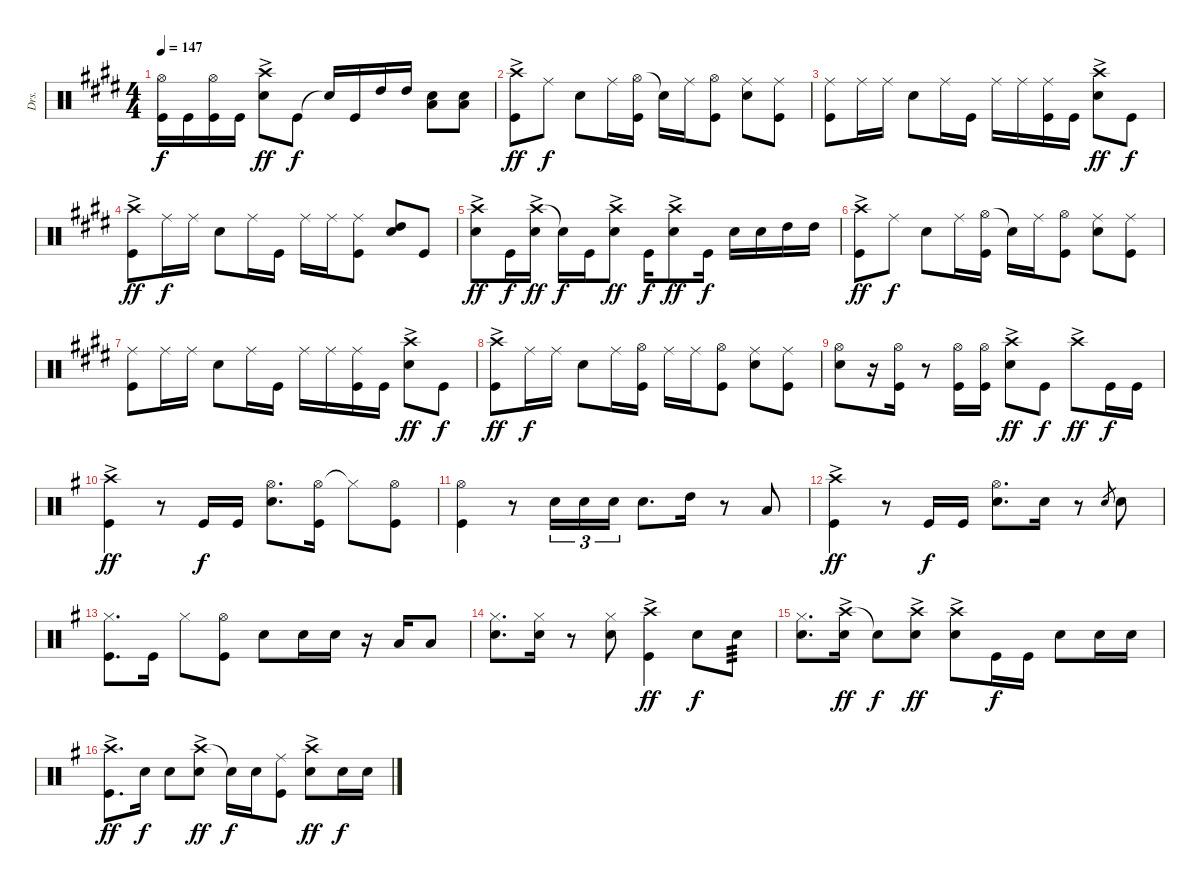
\track ("Drs." "Drs.") {instrument percussion}
\staff {score}
\articulation defaults
\ts (4 4)
\tempo 147
\clef neutral
\ks c#minor
("Hi-Hat (open)" "Kick (hit)").16{dy f} "Kick (hit)".16 ("Hi-Hat (open)" "Kick (hit)").16 "Kick (hit)".16 ("Crash high (hit)"{ac} "Snare (hit) 2").8{dy ff} "Kick (hit)".8{dy f} "Snare (hit)"{t}.16 "Kick (hit)".16 "High Tom (hit)".16 "High Tom (hit)".16 ("Snare (hit) 2" "Low Tom (hit)").8 ("Snare (hit) 2" "Low Tom (hit)").8 |
("Crash high (hit)"{ac} "Kick (hit)").8{dy ff} "Ride (middle)".8{dy f} "Snare (hit) 2".8 "Ride (middle)".16 ("Hi-Hat (open)" "Kick (hit)").16 "Snare (hit)"{t}.16 "Ride (middle)".16 ("Hi-Hat (open)" "Kick (hit)").8 ("Ride (middle)" "Snare (hit) 2").8 ("Ride (middle)" "Kick (hit)").8 |
("Ride (middle)" "Kick (hit)").8 "Ride (middle)".16 "Ride (middle)".16 "Snare (hit) 2".8 "Ride (middle)".16 "Kick (hit)".16 "Ride (middle)".16 "Ride (middle)".16 ("Ride (middle)" "Kick (hit)").16 "Kick (hit)".16 ("Crash high (hit)"{ac} "Snare (hit) 2").8{dy ff} "Kick (hit)".8{dy f} |
("Crash high (hit)"{ac} "Kick (hit)").8{dy ff} "Ride (middle)".16{dy f} "Ride (middle)".16 "Snare (hit) 2".8 "Ride (middle)".16 "Kick (hit)".16 "Ride (middle)".16 "Ride (middle)".16 ("Ride (middle)" "Kick (hit)").8 ("High Tom (hit)" "Snare (hit) 2").8 "Kick (hit)".8 |
("Crash high (hit)"{ac} "Snare (hit) 2").8{dy ff} "Kick (hit)".16{dy f} ("Crash high (hit)"{ac} "Snare (hit) 2").16{dy ff} "Snare (hit)"{t}.16{dy f} "Kick (hit)".16 ("Crash high (hit)"{ac} "Snare (hit) 2").8{dy ff} "Kick (hit)".16{dy f} ("Crash high (hit)"{ac} "Snare (hit) 2").8{dy ff} "Kick (hit)".16{dy f} "Snare (hit) 2".16 "Snare (hit) 2".16 "High Tom (hit)".16 "High Tom (hit)".16 |
("Crash high (hit)"{ac} "Kick (hit)").8{dy ff} "Ride (middle)".8{dy f} "Snare (hit) 2".8 "Ride (middle)".16 ("Hi-Hat (open)" "Kick (hit)").16 "Snare (hit)"{t}.16 "Ride (middle)".16 ("Hi-Hat (open)" "Kick (hit)").8 ("Ride (middle)" "Snare (hit) 2").8 ("Ride (middle)" "Kick (hit)").8 |
("Ride (middle)" "Kick (hit)").8 "Ride (middle)".16 "Ride (middle)".16 "Snare (hit) 2".8 "Ride (middle)".16 "Kick (hit)".16 "Ride (middle)".16 "Ride (middle)".16 ("Ride (middle)" "Kick (hit)").16 "Kick (hit)".16 ("Crash high (hit)"{ac} "Snare (hit) 2").8{dy ff} "Kick (hit)".8{dy f} |
("Crash high (hit)"{ac} "Kick (hit)").8{dy ff} "Ride (middle)".16{dy f} "Ride (middle)".16 "Snare (hit) 2".8 "Ride (middle)".16 ("Hi-Hat (open)" "Kick (hit)").16 "Ride (middle)".16 "Ride (middle)".16 ("Hi-Hat (open)" "Kick (hit)").8 ("Ride (middle)" "Snare (hit) 2").8 ("Ride (middle)" "Kick (hit)").8 |
("Hi-Hat (open)" "Snare (hit) 2").8 r.16 ("Hi-Hat (open)" "Kick (hit)").16 r.8 ("Hi-Hat (open)" "Kick (hit)").16 ("Hi-Hat (open)" "Kick (hit)").16 ("Crash high (hit)"{ac} "Snare (hit) 2").8{dy ff} "Kick (hit)".8{dy f} "Crash high (hit)"{ac}.8{dy ff} "Kick (hit)".16{dy f} "Kick (hit)".16 |
\ks g
("Crash high (hit)"{ac} "Kick (hit)").4{dy ff} r.8 "Kick (hit)".16{dy f} "Kick (hit)".16 ("Hi-Hat (open)" "Snare (hit) 2").8{d} ("Hi-Hat (open)" "Kick (hit)").16 "Hi-Hat (closed)"{t}.8 ("Hi-Hat (open)" "Kick (hit)").8 |
("Hi-Hat (open)" "Kick (hit)").4 r.8 "Snare (hit) 2".16{tu (3 2)} "Snare (hit) 2".16{tu (3 2)} "Snare (hit) 2".16{tu (3 2)} "Snare (hit) 2".8{d} "High Tom (hit)".16 r.8 "Low Tom (hit)".8 |
("Crash high (hit)"{ac} "Kick (hit)").4{dy ff} r.8 "Kick (hit)".16{dy f} "Kick (hit)".16 ("Hi-Hat (open)" "Snare (hit) 2").8{d} "Snare (hit) 2".16 r.8 "Snare (hit) 2".8{gr} "Snare (hit) 2".8 |
("Hi-Hat (closed)" "Kick (hit)").8{d} "Kick (hit)".16 "Hi-Hat (closed)".8 ("Hi-Hat (open)" "Kick (hit)").8 "Snare (hit) 2".8 "Snare (hit) 2".16 "Snare (hit) 2".16 r.16 "Low Tom (hit)".16 "Low Tom (hit)".8 |
("Hi-Hat (closed)" "Snare (hit) 2").8{d} ("Hi-Hat (closed)" "Snare (hit) 2").16 r.8 ("Hi-Hat (closed)" "Snare (hit) 2").8 ("Crash high (hit)"{ac} "Kick (hit)").4{dy ff} "Snare (hit) 2".8{dy f} "Snare (hit) 2".8{tp 3} |
("Hi-Hat (closed)" "Snare (hit) 2").8{d} ("Crash high (hit)"{ac} "Snare (hit) 2").16{dy ff} "Snare (hit)"{t}.8{dy f} ("Crash high (hit)"{ac} "Snare (hit) 2").8{dy ff} ("Crash high (hit)"{ac} "Snare (hit) 2").8 "Kick (hit)".16{dy f} "Kick (hit)".16 "Snare (hit) 2".8 "Snare (hit) 2".16 "Snare (hit) 2".16 |
("Crash high (hit)"{ac} "Kick (hit)").8{d dy ff} "Snare (hit) 2".16{dy f} "Snare (hit) 2".8 ("Crash high (hit)"{ac} "Snare (hit) 2").8{dy ff} "Snare (hit)"{t}.16{dy f} "Snare (hit) 2".16 ("Ride (middle)" "Kick (hit)").8 ("Crash high (hit)"{ac} "Snare (hit) 2").8{dy ff} "Snare (hit) 2".16{dy f} "Snare (hit) 2".16
